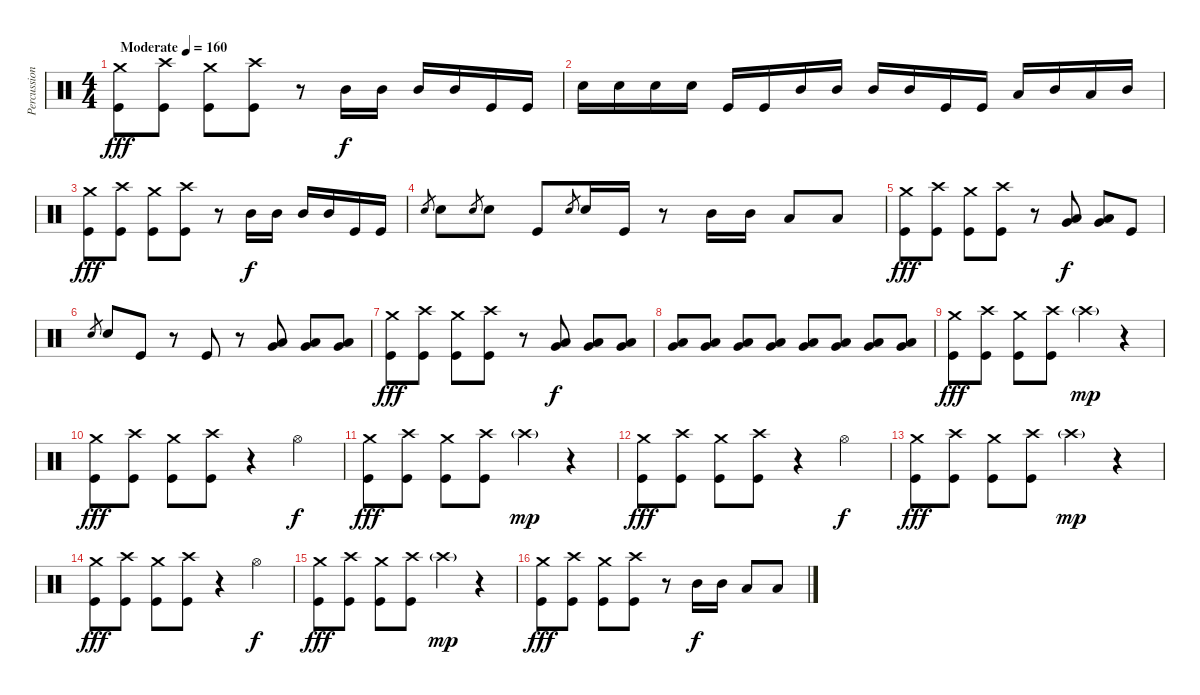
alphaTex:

\track ("Percussion" "Percussion") {instrument percussion}
\staff {score}
\articulation defaults
\ts (4 4)
\tempo (160 "Moderate")
\clef neutral
\ks c
("Crash medium (hit)" "Kick (hit)").8{dy fff} ("Crash high (hit)" "Kick (hit)").8 ("Crash medium (hit)" "Kick (hit)").8 ("Crash high (hit)" "Kick (hit)").8 r.8 "Mid Tom (hit)".16{dy f} "Mid Tom (hit)".16 "Mid Tom (hit)".16 "Mid Tom (hit)".16 "Kick (hit)".16 "Kick (hit)".16 |
"Snare (hit) 2".16 "Snare (hit) 2".16 "Snare (hit) 2".16 "Snare (hit) 2".16 "Kick (hit)".16 "Kick (hit)".16 "Mid Tom (hit)".16 "Mid Tom (hit)".16 "Mid Tom (hit)".16 "Mid Tom (hit)".16 "Kick (hit)".16 "Kick (hit)".16 "Low Tom (hit)".16 "Mid Tom (hit)".16 "Low Tom (hit)".16 "Mid Tom (hit)".16 |
("Crash medium (hit)" "Kick (hit)").8{dy fff} ("Crash high (hit)" "Kick (hit)").8 ("Crash medium (hit)" "Kick (hit)").8 ("Crash high (hit)" "Kick (hit)").8 r.8 "Mid Tom (hit)".16{dy f} "Mid Tom (hit)".16 "Mid Tom (hit)".16 "Mid Tom (hit)".16 "Kick (hit)".16 "Kick (hit)".16 |
"Snare (hit) 2".8{gr} "Snare (hit) 2".8 "Snare (hit) 2".8{gr} "Snare (hit) 2".8 "Kick (hit)".8 "Snare (hit) 2".8{gr} "Snare (hit) 2".16 "Kick (hit)".16 r.8 "Mid Tom (hit)".16 "Mid Tom (hit)".16 "Low Tom (hit)".8 "Low Tom (hit)".8 |
("Crash medium (hit)" "Kick (hit)").8{dy fff} ("Crash high (hit)" "Kick (hit)").8 ("Crash medium (hit)" "Kick (hit)").8 ("Crash high (hit)" "Kick (hit)").8 r.8 ("Low Tom (hit)" "Very Low Tom (hit)").8{dy f} ("Low Tom (hit)" "Very Low Tom (hit)").8 "Kick (hit)".8 |
"Snare (hit) 2".8{gr} "Snare (hit) 2".8 "Kick (hit)".8 r.8 "Kick (hit)".8 r.8 ("Low Tom (hit)" "Very Low Tom (hit)").8 ("Low Tom (hit)" "Very Low Tom (hit)").8 ("Low Tom (hit)" "Very Low Tom (hit)").8 |
("Crash medium (hit)" "Kick (hit)").8{dy fff} ("Crash high (hit)" "Kick (hit)").8 ("Crash medium (hit)" "Kick (hit)").8 ("Crash high (hit)" "Kick (hit)").8 r.8{volume 7} ("Low Tom (hit)" "Very Low Tom (hit)").8{dy f} ("Low Tom (hit)" "Very Low Tom (hit)").8{volume 12} ("Low Tom (hit)" "Very Low Tom (hit)").8 |
("Low Tom (hit)" "Very Low Tom (hit)").8 ("Low Tom (hit)" "Very Low Tom (hit)").8 ("Low Tom (hit)" "Very Low Tom (hit)").8 ("Low Tom (hit)" "Very Low Tom (hit)").8 ("Low Tom (hit)" "Very Low Tom (hit)").8 ("Low Tom (hit)" "Very Low Tom (hit)").8 ("Low Tom (hit)" "Very Low Tom (hit)").8 ("Low Tom (hit)" "Very Low Tom (hit)").8 |
("Crash medium (hit)" "Kick (hit)").8{dy fff} ("Crash high (hit)" "Kick (hit)").8 ("Crash medium (hit)" "Kick (hit)").8 ("Crash high (hit)" "Kick (hit)").8 "Crash high (hit)"{g}.4{dy mp volume 8} r.4 |
("Crash medium (hit)" "Kick (hit)").8{dy fff volume 12} ("Crash high (hit)" "Kick (hit)").8 ("Crash medium (hit)" "Kick (hit)").8 ("Crash high (hit)" "Kick (hit)").8 r.4 "Hi-Hat (open)".4{dy f} |
("Crash medium (hit)" "Kick (hit)").8{dy fff} ("Crash high (hit)" "Kick (hit)").8 ("Crash medium (hit)" "Kick (hit)").8 ("Crash high (hit)" "Kick (hit)").8 "Crash high (hit)"{g}.4{dy mp volume 8} r.4 |
("Crash medium (hit)" "Kick (hit)").8{dy fff volume 12} ("Crash high (hit)" "Kick (hit)").8 ("Crash medium (hit)" "Kick (hit)").8 ("Crash high (hit)" "Kick (hit)").8 r.4 "Hi-Hat (open)".4{dy f} |
("Crash medium (hit)" "Kick (hit)").8{dy fff} ("Crash high (hit)" "Kick (hit)").8 ("Crash medium (hit)" "Kick (hit)").8 ("Crash high (hit)" "Kick (hit)").8 "Crash high (hit)"{g}.4{dy mp volume 8} r.4 |
("Crash medium (hit)" "Kick (hit)").8{dy fff volume 12} ("Crash high (hit)" "Kick (hit)").8 ("Crash medium (hit)" "Kick (hit)").8 ("Crash high (hit)" "Kick (hit)").8 r.4 "Hi-Hat (open)".4{dy f} |
("Crash medium (hit)" "Kick (hit)").8{dy fff} ("Crash high (hit)" "Kick (hit)").8 ("Crash medium (hit)" "Kick (hit)").8 ("Crash high (hit)" "Kick (hit)").8 "Crash high (hit)"{g}.4{dy mp} r.4 |
("Crash medium (hit)" "Kick (hit)").8{dy fff} ("Crash high (hit)" "Kick (hit)").8 ("Crash medium (hit)" "Kick (hit)").8 ("Crash high (hit)" "Kick (hit)").8 r.8 "Mid Tom (hit)".16{dy f} "Mid Tom (hit)".16 "Low Tom (hit)".8 "Low Tom (hit)".8
